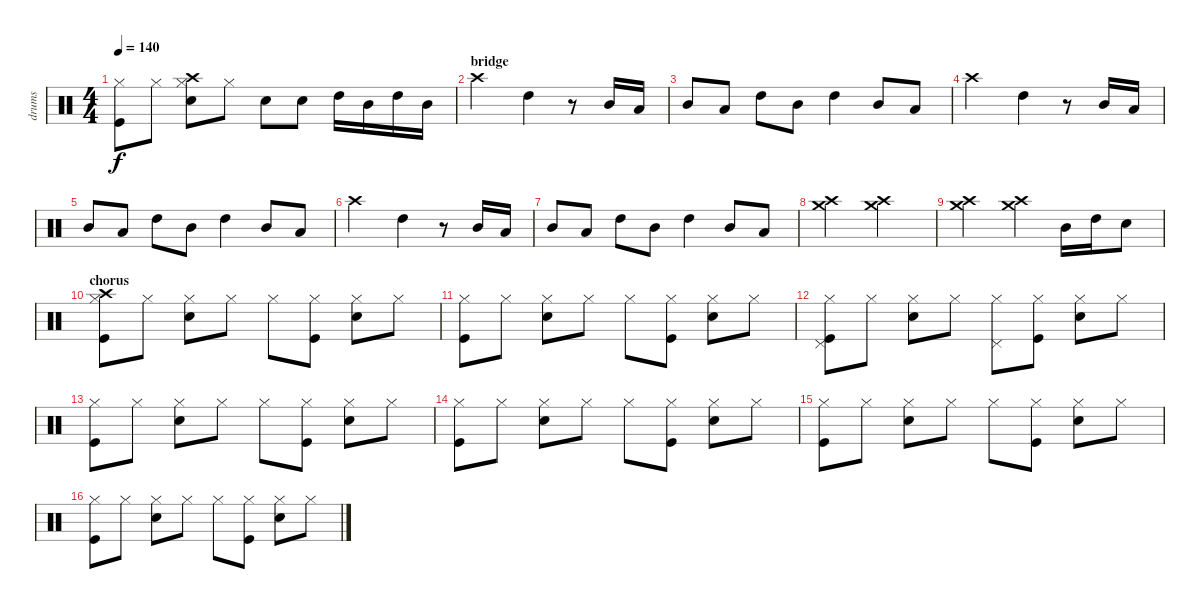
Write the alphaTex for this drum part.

\track ("drums" "drums") {instrument percussion}
\staff {score}
\articulation defaults
\ts (4 4)
\tempo 140
\clef neutral
\ks c
("Hi-Hat (closed)" "Kick (hit)").8{dy f} "Hi-Hat (closed)".8 ("Crash high (hit)" "Hi-Hat (closed)" "Snare (hit) 2").8 "Hi-Hat (closed)".8 "Snare (hit) 2".8 "Snare (hit) 2".8 "High Tom (hit)".16 "Mid Tom (hit)".16 "High Tom (hit)".16 "Mid Tom (hit)".16 |
\section ("" "bridge")
"Crash high (hit)".2 "High Tom (hit)".4 r.8 "Mid Tom (hit)".16 "Low Tom (hit)".16 |
"Mid Tom (hit)".8 "Low Tom (hit)".8 "High Tom (hit)".8 "Mid Tom (hit)".8 "High Tom (hit)".4 "Mid Tom (hit)".8 "Low Tom (hit)".8 |
"Crash high (hit)".2 "High Tom (hit)".4 r.8 "Mid Tom (hit)".16 "Low Tom (hit)".16 |
"Mid Tom (hit)".8 "Low Tom (hit)".8 "High Tom (hit)".8 "Mid Tom (hit)".8 "High Tom (hit)".4 "Mid Tom (hit)".8 "Low Tom (hit)".8 |
"Crash high (hit)".2 "High Tom (hit)".4 r.8 "Mid Tom (hit)".16 "Low Tom (hit)".16 |
"Mid Tom (hit)".8 "Low Tom (hit)".8 "High Tom (hit)".8 "Mid Tom (hit)".8 "High Tom (hit)".4 "Mid Tom (hit)".8 "Low Tom (hit)".8 |
("Crash high (hit)" "Crash medium (hit)").2 ("Crash high (hit)" "Crash medium (hit)").2 |
("Crash high (hit)" "Crash medium (hit)").2 ("Crash high (hit)" "Crash medium (hit)").4 "Mid Tom (hit)".16 "High Tom (hit)".16 "Electric Snare (hit)".8 |
\section ("" "chorus")
("Crash high (hit)" "Hi-Hat (closed)" "Kick (hit)").8 "Hi-Hat (closed)".8 ("Hi-Hat (closed)" "Snare (hit) 2").8 "Hi-Hat (closed)".8 "Hi-Hat (closed)".8 ("Hi-Hat (closed)" "Kick (hit)").8 ("Hi-Hat (closed)" "Snare (hit) 2").8 "Hi-Hat (closed)".8 |
("Hi-Hat (closed)" "Kick (hit)").8 "Hi-Hat (closed)".8 ("Hi-Hat (closed)" "Snare (hit) 2").8 "Hi-Hat (closed)".8 "Hi-Hat (closed)".8 ("Hi-Hat (closed)" "Kick (hit)").8 ("Hi-Hat (closed)" "Snare (hit) 2").8 "Hi-Hat (closed)".8 |
("Pedal Hi-Hat (hit)" "Hi-Hat (closed)" "Kick (hit)").8 "Hi-Hat (closed)".8 ("Hi-Hat (closed)" "Snare (hit) 2").8 "Hi-Hat (closed)".8 ("Pedal Hi-Hat (hit)" "Hi-Hat (closed)").8 ("Hi-Hat (closed)" "Kick (hit)").8 ("Hi-Hat (closed)" "Snare (hit) 2").8 "Hi-Hat (closed)".8 |
("Hi-Hat (closed)" "Kick (hit)").8 "Hi-Hat (closed)".8 ("Hi-Hat (closed)" "Snare (hit) 2").8 "Hi-Hat (closed)".8 "Hi-Hat (closed)".8 ("Hi-Hat (closed)" "Kick (hit)").8 ("Hi-Hat (closed)" "Snare (hit) 2").8 "Hi-Hat (closed)".8 |
("Hi-Hat (closed)" "Kick (hit)").8 "Hi-Hat (closed)".8 ("Hi-Hat (closed)" "Snare (hit) 2").8 "Hi-Hat (closed)".8 "Hi-Hat (closed)".8 ("Hi-Hat (closed)" "Kick (hit)").8 ("Hi-Hat (closed)" "Snare (hit) 2").8 "Hi-Hat (closed)".8 |
("Hi-Hat (closed)" "Kick (hit)").8 "Hi-Hat (closed)".8 ("Hi-Hat (closed)" "Snare (hit) 2").8 "Hi-Hat (closed)".8 "Hi-Hat (closed)".8 ("Hi-Hat (closed)" "Kick (hit)").8 ("Hi-Hat (closed)" "Snare (hit) 2").8 "Hi-Hat (closed)".8 |
("Hi-Hat (closed)" "Kick (hit)").8 "Hi-Hat (closed)".8 ("Hi-Hat (closed)" "Snare (hit) 2").8 "Hi-Hat (closed)".8 "Hi-Hat (closed)".8 ("Hi-Hat (closed)" "Kick (hit)").8 ("Hi-Hat (closed)" "Snare (hit) 2").8 "Hi-Hat (closed)".8
